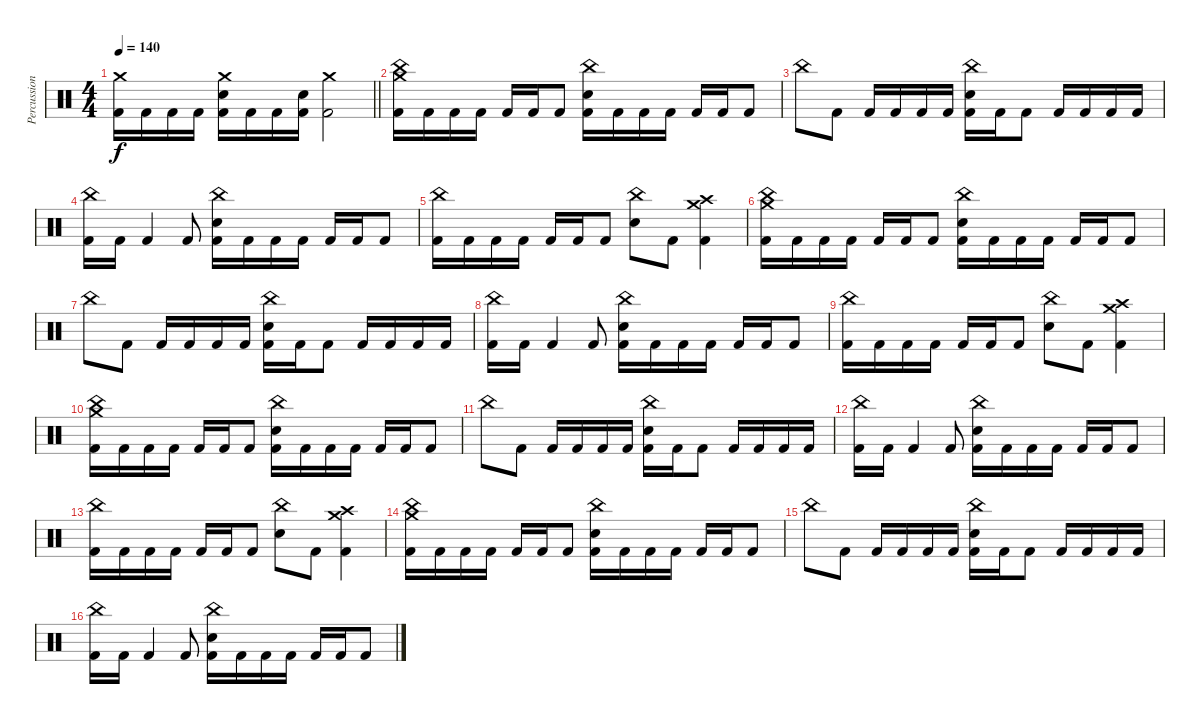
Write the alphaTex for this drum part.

\track ("Percussion" "Percussion") {instrument percussion}
\staff {score}
\articulation defaults
\ts (4 4)
\tempo 140
\clef neutral
\barLineRight lightlight
\ks c
("Crash medium (hit)" "Kick (hit) 2").16{dy f} "Kick (hit) 2".16 "Kick (hit) 2".16 "Kick (hit) 2".16 ("Crash medium (hit)" "Snare (hit) 2" "Kick (hit) 2").16 "Kick (hit) 2".16 "Kick (hit) 2".16 ("Snare (hit) 2" "Kick (hit) 2").16 ("Crash medium (hit)" "Kick (hit) 2").2 |
("Crash medium (hit)" "China (hit)" "Kick (hit) 2").16 "Kick (hit) 2".16 "Kick (hit) 2".16 "Kick (hit) 2".16 "Kick (hit) 2".16 "Kick (hit) 2".16 "Kick (hit) 2".8 ("China (hit)" "Snare (hit) 2" "Kick (hit) 2").16 "Kick (hit) 2".16 "Kick (hit) 2".16 "Kick (hit) 2".16 "Kick (hit) 2".16 "Kick (hit) 2".16 "Kick (hit) 2".8 |
"China (hit)".8 "Kick (hit) 2".8 "Kick (hit) 2".16 "Kick (hit) 2".16 "Kick (hit) 2".16 "Kick (hit) 2".16 ("China (hit)" "Snare (hit) 2" "Kick (hit) 2").16 "Kick (hit) 2".16 "Kick (hit) 2".8 "Kick (hit) 2".16 "Kick (hit) 2".16 "Kick (hit) 2".16 "Kick (hit) 2".16 |
("China (hit)" "Kick (hit) 2").16 "Kick (hit) 2".16 "Kick (hit) 2".4 "Kick (hit) 2".8 ("China (hit)" "Snare (hit) 2" "Kick (hit) 2").16 "Kick (hit) 2".16 "Kick (hit) 2".16 "Kick (hit) 2".16 "Kick (hit) 2".16 "Kick (hit) 2".16 "Kick (hit) 2".8 |
("China (hit)" "Kick (hit) 2").16 "Kick (hit) 2".16 "Kick (hit) 2".16 "Kick (hit) 2".16 "Kick (hit) 2".16 "Kick (hit) 2".16 "Kick (hit) 2".8 ("China (hit)" "Snare (hit) 2").8 "Kick (hit) 2".8 ("Crash medium (hit)" "Crash high (hit)" "Kick (hit) 2").4 |
("Crash medium (hit)" "China (hit)" "Kick (hit) 2").16 "Kick (hit) 2".16 "Kick (hit) 2".16 "Kick (hit) 2".16 "Kick (hit) 2".16 "Kick (hit) 2".16 "Kick (hit) 2".8 ("China (hit)" "Snare (hit) 2" "Kick (hit) 2").16 "Kick (hit) 2".16 "Kick (hit) 2".16 "Kick (hit) 2".16 "Kick (hit) 2".16 "Kick (hit) 2".16 "Kick (hit) 2".8 |
"China (hit)".8 "Kick (hit) 2".8 "Kick (hit) 2".16 "Kick (hit) 2".16 "Kick (hit) 2".16 "Kick (hit) 2".16 ("China (hit)" "Snare (hit) 2" "Kick (hit) 2").16 "Kick (hit) 2".16 "Kick (hit) 2".8 "Kick (hit) 2".16 "Kick (hit) 2".16 "Kick (hit) 2".16 "Kick (hit) 2".16 |
("China (hit)" "Kick (hit) 2").16 "Kick (hit) 2".16 "Kick (hit) 2".4 "Kick (hit) 2".8 ("China (hit)" "Snare (hit) 2" "Kick (hit) 2").16 "Kick (hit) 2".16 "Kick (hit) 2".16 "Kick (hit) 2".16 "Kick (hit) 2".16 "Kick (hit) 2".16 "Kick (hit) 2".8 |
("China (hit)" "Kick (hit) 2").16 "Kick (hit) 2".16 "Kick (hit) 2".16 "Kick (hit) 2".16 "Kick (hit) 2".16 "Kick (hit) 2".16 "Kick (hit) 2".8 ("China (hit)" "Snare (hit) 2").8 "Kick (hit) 2".8 ("Crash medium (hit)" "Crash high (hit)" "Kick (hit) 2").4 |
("Crash medium (hit)" "China (hit)" "Kick (hit) 2").16 "Kick (hit) 2".16 "Kick (hit) 2".16 "Kick (hit) 2".16 "Kick (hit) 2".16 "Kick (hit) 2".16 "Kick (hit) 2".8 ("China (hit)" "Snare (hit) 2" "Kick (hit) 2").16 "Kick (hit) 2".16 "Kick (hit) 2".16 "Kick (hit) 2".16 "Kick (hit) 2".16 "Kick (hit) 2".16 "Kick (hit) 2".8 |
"China (hit)".8 "Kick (hit) 2".8 "Kick (hit) 2".16 "Kick (hit) 2".16 "Kick (hit) 2".16 "Kick (hit) 2".16 ("China (hit)" "Snare (hit) 2" "Kick (hit) 2").16 "Kick (hit) 2".16 "Kick (hit) 2".8 "Kick (hit) 2".16 "Kick (hit) 2".16 "Kick (hit) 2".16 "Kick (hit) 2".16 |
("China (hit)" "Kick (hit) 2").16 "Kick (hit) 2".16 "Kick (hit) 2".4 "Kick (hit) 2".8 ("China (hit)" "Snare (hit) 2" "Kick (hit) 2").16 "Kick (hit) 2".16 "Kick (hit) 2".16 "Kick (hit) 2".16 "Kick (hit) 2".16 "Kick (hit) 2".16 "Kick (hit) 2".8 |
("China (hit)" "Kick (hit) 2").16 "Kick (hit) 2".16 "Kick (hit) 2".16 "Kick (hit) 2".16 "Kick (hit) 2".16 "Kick (hit) 2".16 "Kick (hit) 2".8 ("China (hit)" "Snare (hit) 2").8 "Kick (hit) 2".8 ("Crash medium (hit)" "Crash high (hit)" "Kick (hit) 2").4 |
("Crash medium (hit)" "China (hit)" "Kick (hit) 2").16 "Kick (hit) 2".16 "Kick (hit) 2".16 "Kick (hit) 2".16 "Kick (hit) 2".16 "Kick (hit) 2".16 "Kick (hit) 2".8 ("China (hit)" "Snare (hit) 2" "Kick (hit) 2").16 "Kick (hit) 2".16 "Kick (hit) 2".16 "Kick (hit) 2".16 "Kick (hit) 2".16 "Kick (hit) 2".16 "Kick (hit) 2".8 |
"China (hit)".8 "Kick (hit) 2".8 "Kick (hit) 2".16 "Kick (hit) 2".16 "Kick (hit) 2".16 "Kick (hit) 2".16 ("China (hit)" "Snare (hit) 2" "Kick (hit) 2").16 "Kick (hit) 2".16 "Kick (hit) 2".8 "Kick (hit) 2".16 "Kick (hit) 2".16 "Kick (hit) 2".16 "Kick (hit) 2".16 |
("China (hit)" "Kick (hit) 2").16 "Kick (hit) 2".16 "Kick (hit) 2".4 "Kick (hit) 2".8 ("China (hit)" "Snare (hit) 2" "Kick (hit) 2").16 "Kick (hit) 2".16 "Kick (hit) 2".16 "Kick (hit) 2".16 "Kick (hit) 2".16 "Kick (hit) 2".16 "Kick (hit) 2".8
